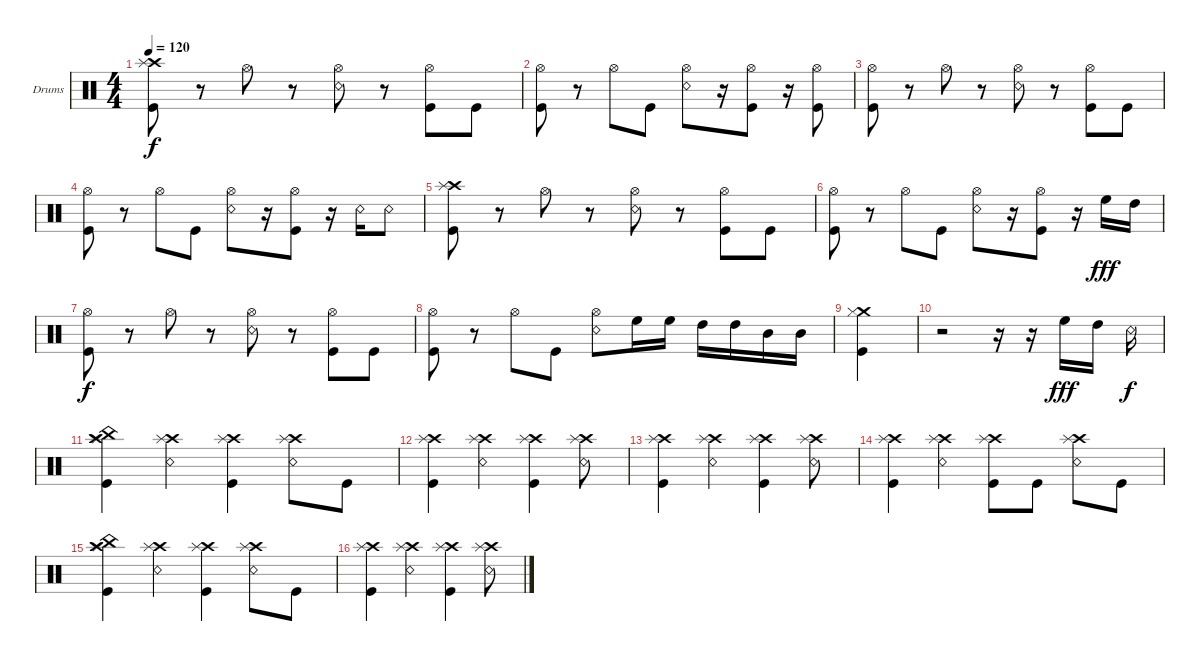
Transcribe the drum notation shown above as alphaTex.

\defaultSystemsLayout 4
\bracketExtendMode groupsimilarinstruments
\firstSystemTrackNameOrientation horizontal
\otherSystemsTrackNameOrientation horizontal
\track ("Drumkit" "Drums") {instrument percussion}
\staff {score}
\articulation defaults
\ts (4 4)
\tempo 120
\clef neutral
\scale
0.333333
\ks c
("Kick (hit)" "Crash high (hit)" "Splash (hit)").8{dy f} r.8 "Hi-Hat (open)".8 r.8 ("Hi-Hat (open)" "Snare (rim shot)").8 r.8 ("Kick (hit)" "Hi-Hat (open)").8 "Kick (hit)".8 |
\scale
0.333333 ("Kick (hit)" "Hi-Hat (open)").8 r.8 "Hi-Hat (open)".8 "Kick (hit)".8 ("Hi-Hat (open)" "Snare (rim shot)").8 r.16 ("Hi-Hat (open)" "Kick (hit)").8 r.16 ("Kick (hit)" "Hi-Hat (open)").8 |
\scale
0.333333 ("Kick (hit)" "Hi-Hat (open)").8 r.8 "Hi-Hat (open)".8 r.8 ("Hi-Hat (open)" "Snare (rim shot)").8 r.8 ("Kick (hit)" "Hi-Hat (open)").8 "Kick (hit)".8 |
\scale
0.333333 ("Kick (hit)" "Hi-Hat (open)").8 r.8 "Hi-Hat (open)".8 "Kick (hit)".8 ("Hi-Hat (open)" "Snare (rim shot)").8 r.16 ("Hi-Hat (open)" "Kick (hit)").8 r.16 "Snare (rim shot)".16 "Snare (rim shot)".8 |
\scale
0.333333 ("Kick (hit)" "Crash high (hit)" "Splash (hit)").8 r.8 "Hi-Hat (open)".8 r.8 ("Hi-Hat (open)" "Snare (rim shot)").8 r.8 ("Kick (hit)" "Hi-Hat (open)").8 "Kick (hit)".8 |
\scale
0.333333 ("Kick (hit)" "Hi-Hat (open)").8 r.8 "Hi-Hat (open)".8 "Kick (hit)".8 ("Hi-Hat (open)" "Snare (rim shot)").8 r.16 ("Hi-Hat (open)" "Kick (hit)").8 r.16 "High Floor Tom (hit)".16{dy fff} "High Tom (hit)".16 |
\scale
0.333333 ("Kick (hit)" "Hi-Hat (open)").8{dy f} r.8 "Hi-Hat (open)".8 r.8 ("Hi-Hat (open)" "Snare (rim shot)").8 r.8 ("Kick (hit)" "Hi-Hat (open)").8 "Kick (hit)".8 |
\scale
0.333333 ("Kick (hit)" "Hi-Hat (open)").8 r.8 "Hi-Hat (open)".8 "Kick (hit)".8 ("Hi-Hat (open)" "Snare (rim shot)").8 "High Floor Tom (hit)".16 "High Floor Tom (hit)".16 "High Tom (hit)".16 "High Tom (hit)".16 "Mid Tom (hit)".16 "Mid Tom (hit)".16 |
\scale
0.333333 ("Kick (hit)" "Crash medium (hit)" "Hi-Hat (closed)").4 |
\scale
0.333333 r.2 r.16 r.16 "High Floor Tom (hit)".16{dy fff} "High Tom (hit)".16 "Snare (rim shot)".16{dy f} |
\scale
0.333333 ("Kick (hit)" "Crash high (hit)" "Splash (hit)" "China (hit)").4 ("Snare (rim shot)" "Crash high (hit)" "Splash (hit)").4 ("Kick (hit)" "Crash high (hit)" "Splash (hit)").4 ("Snare (rim shot)" "Crash high (hit)" "Splash (hit)").8 "Kick (hit)".8 |
\scale
0.333333 ("Kick (hit)" "Crash high (hit)" "Splash (hit)").4 ("Snare (rim shot)" "Crash high (hit)" "Splash (hit)").4 ("Kick (hit)" "Crash high (hit)" "Splash (hit)").4 ("Snare (rim shot)" "Crash high (hit)" "Splash (hit)").8 |
\scale
0.333333 ("Kick (hit)" "Crash high (hit)" "Splash (hit)").4 ("Snare (rim shot)" "Crash high (hit)" "Splash (hit)").4 ("Kick (hit)" "Crash high (hit)" "Splash (hit)").4 ("Snare (rim shot)" "Crash high (hit)" "Splash (hit)").8 |
\scale
0.333333 ("Kick (hit)" "Crash high (hit)" "Splash (hit)").4 ("Snare (rim shot)" "Crash high (hit)" "Splash (hit)").4 ("Kick (hit)" "Crash high (hit)" "Splash (hit)").8 "Kick (hit)".8 ("Snare (rim shot)" "Crash high (hit)" "Splash (hit)").8 "Kick (hit)".8 |
\scale
0.333333 ("Kick (hit)" "Crash high (hit)" "Splash (hit)" "China (hit)").4 ("Snare (rim shot)" "Crash high (hit)" "Splash (hit)").4 ("Kick (hit)" "Crash high (hit)" "Splash (hit)").4 ("Snare (rim shot)" "Crash high (hit)" "Splash (hit)").8 "Kick (hit)".8 |
\scale
0.333333 ("Kick (hit)" "Crash high (hit)" "Splash (hit)").4 ("Snare (rim shot)" "Crash high (hit)" "Splash (hit)").4 ("Kick (hit)" "Crash high (hit)" "Splash (hit)").4 ("Snare (rim shot)" "Crash high (hit)" "Splash (hit)").8
